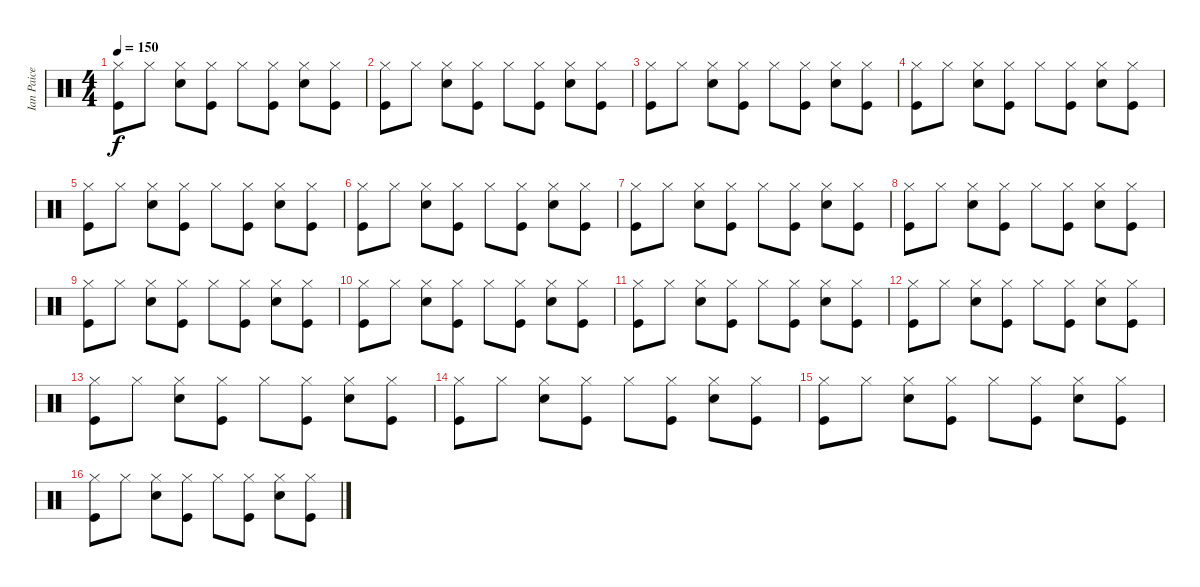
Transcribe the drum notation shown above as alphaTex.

\track ("Ian Paice" "Ian Paice") {instrument percussion}
\staff {score}
\articulation defaults
\ts (4 4)
\tempo 150
\clef neutral
\ks c
("Hi-Hat (closed)" "Kick (hit)").8{dy f} "Hi-Hat (closed)".8 ("Hi-Hat (closed)" "Snare (hit) 2").8 ("Hi-Hat (closed)" "Kick (hit)").8 "Hi-Hat (closed)".8 ("Hi-Hat (closed)" "Kick (hit)").8 ("Hi-Hat (closed)" "Snare (hit) 2").8 ("Hi-Hat (closed)" "Kick (hit)").8 |
("Hi-Hat (closed)" "Kick (hit)").8 "Hi-Hat (closed)".8 ("Hi-Hat (closed)" "Snare (hit) 2").8 ("Hi-Hat (closed)" "Kick (hit)").8 "Hi-Hat (closed)".8 ("Hi-Hat (closed)" "Kick (hit)").8 ("Hi-Hat (closed)" "Snare (hit) 2").8 ("Hi-Hat (closed)" "Kick (hit)").8 |
("Hi-Hat (closed)" "Kick (hit)").8 "Hi-Hat (closed)".8 ("Hi-Hat (closed)" "Snare (hit) 2").8 ("Hi-Hat (closed)" "Kick (hit)").8 "Hi-Hat (closed)".8 ("Hi-Hat (closed)" "Kick (hit)").8 ("Hi-Hat (closed)" "Snare (hit) 2").8 ("Hi-Hat (closed)" "Kick (hit)").8 |
("Hi-Hat (closed)" "Kick (hit)").8 "Hi-Hat (closed)".8 ("Hi-Hat (closed)" "Snare (hit) 2").8 ("Hi-Hat (closed)" "Kick (hit)").8 "Hi-Hat (closed)".8 ("Hi-Hat (closed)" "Kick (hit)").8 ("Hi-Hat (closed)" "Snare (hit) 2").8 ("Hi-Hat (closed)" "Kick (hit)").8 |
("Hi-Hat (closed)" "Kick (hit)").8 "Hi-Hat (closed)".8 ("Hi-Hat (closed)" "Snare (hit) 2").8 ("Hi-Hat (closed)" "Kick (hit)").8 "Hi-Hat (closed)".8 ("Hi-Hat (closed)" "Kick (hit)").8 ("Hi-Hat (closed)" "Snare (hit) 2").8 ("Hi-Hat (closed)" "Kick (hit)").8 |
("Hi-Hat (closed)" "Kick (hit)").8 "Hi-Hat (closed)".8 ("Hi-Hat (closed)" "Snare (hit) 2").8 ("Hi-Hat (closed)" "Kick (hit)").8 "Hi-Hat (closed)".8 ("Hi-Hat (closed)" "Kick (hit)").8 ("Hi-Hat (closed)" "Snare (hit) 2").8 ("Hi-Hat (closed)" "Kick (hit)").8 |
("Hi-Hat (closed)" "Kick (hit)").8 "Hi-Hat (closed)".8 ("Hi-Hat (closed)" "Snare (hit) 2").8 ("Hi-Hat (closed)" "Kick (hit)").8 "Hi-Hat (closed)".8 ("Hi-Hat (closed)" "Kick (hit)").8 ("Hi-Hat (closed)" "Snare (hit) 2").8 ("Hi-Hat (closed)" "Kick (hit)").8 |
("Hi-Hat (closed)" "Kick (hit)").8 "Hi-Hat (closed)".8 ("Hi-Hat (closed)" "Snare (hit) 2").8 ("Hi-Hat (closed)" "Kick (hit)").8 "Hi-Hat (closed)".8 ("Hi-Hat (closed)" "Kick (hit)").8 ("Hi-Hat (closed)" "Snare (hit) 2").8 ("Hi-Hat (closed)" "Kick (hit)").8 |
("Hi-Hat (closed)" "Kick (hit)").8 "Hi-Hat (closed)".8 ("Hi-Hat (closed)" "Snare (hit) 2").8 ("Hi-Hat (closed)" "Kick (hit)").8 "Hi-Hat (closed)".8 ("Hi-Hat (closed)" "Kick (hit)").8 ("Hi-Hat (closed)" "Snare (hit) 2").8 ("Hi-Hat (closed)" "Kick (hit)").8 |
("Hi-Hat (closed)" "Kick (hit)").8 "Hi-Hat (closed)".8 ("Hi-Hat (closed)" "Snare (hit) 2").8 ("Hi-Hat (closed)" "Kick (hit)").8 "Hi-Hat (closed)".8 ("Hi-Hat (closed)" "Kick (hit)").8 ("Hi-Hat (closed)" "Snare (hit) 2").8 ("Hi-Hat (closed)" "Kick (hit)").8 |
("Hi-Hat (closed)" "Kick (hit)").8 "Hi-Hat (closed)".8 ("Hi-Hat (closed)" "Snare (hit) 2").8 ("Hi-Hat (closed)" "Kick (hit)").8 "Hi-Hat (closed)".8 ("Hi-Hat (closed)" "Kick (hit)").8 ("Hi-Hat (closed)" "Snare (hit) 2").8 ("Hi-Hat (closed)" "Kick (hit)").8 |
("Hi-Hat (closed)" "Kick (hit)").8 "Hi-Hat (closed)".8 ("Hi-Hat (closed)" "Snare (hit) 2").8 ("Hi-Hat (closed)" "Kick (hit)").8 "Hi-Hat (closed)".8 ("Hi-Hat (closed)" "Kick (hit)").8 ("Hi-Hat (closed)" "Snare (hit) 2").8 ("Hi-Hat (closed)" "Kick (hit)").8 |
("Hi-Hat (closed)" "Kick (hit)").8 "Hi-Hat (closed)".8 ("Hi-Hat (closed)" "Snare (hit) 2").8 ("Hi-Hat (closed)" "Kick (hit)").8 "Hi-Hat (closed)".8 ("Hi-Hat (closed)" "Kick (hit)").8 ("Hi-Hat (closed)" "Snare (hit) 2").8 ("Hi-Hat (closed)" "Kick (hit)").8 |
("Hi-Hat (closed)" "Kick (hit)").8 "Hi-Hat (closed)".8 ("Hi-Hat (closed)" "Snare (hit) 2").8 ("Hi-Hat (closed)" "Kick (hit)").8 "Hi-Hat (closed)".8 ("Hi-Hat (closed)" "Kick (hit)").8 ("Hi-Hat (closed)" "Snare (hit) 2").8 ("Hi-Hat (closed)" "Kick (hit)").8 |
("Hi-Hat (closed)" "Kick (hit)").8 "Hi-Hat (closed)".8 ("Hi-Hat (closed)" "Snare (hit) 2").8 ("Hi-Hat (closed)" "Kick (hit)").8 "Hi-Hat (closed)".8 ("Hi-Hat (closed)" "Kick (hit)").8 ("Hi-Hat (closed)" "Snare (hit) 2").8 ("Hi-Hat (closed)" "Kick (hit)").8 |
("Hi-Hat (closed)" "Kick (hit)").8 "Hi-Hat (closed)".8 ("Hi-Hat (closed)" "Snare (hit) 2").8 ("Hi-Hat (closed)" "Kick (hit)").8 "Hi-Hat (closed)".8 ("Hi-Hat (closed)" "Kick (hit)").8 ("Hi-Hat (closed)" "Snare (hit) 2").8 ("Hi-Hat (closed)" "Kick (hit)").8
